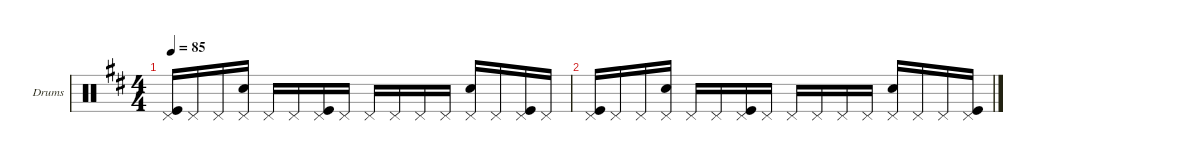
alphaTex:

\defaultSystemsLayout 4
\hideDynamics
\bracketExtendMode nobrackets
\firstSystemTrackNameOrientation horizontal
\otherSystemsTrackNameOrientation horizontal
\track ("Drumkit" "Drums") {instrument percussion}
\staff {score}
\articulation defaults
\ts (4 4)
\tempo 85
\clef neutral
\ks d
("Pedal Hi-Hat (hit)" "Kick (hit)").16{dy mf} "Pedal Hi-Hat (hit)".16 "Pedal Hi-Hat (hit)".16 ("Pedal Hi-Hat (hit)" "Snare (hit) 2").16 "Pedal Hi-Hat (hit)".16 "Pedal Hi-Hat (hit)".16 ("Pedal Hi-Hat (hit)" "Kick (hit)").16 "Pedal Hi-Hat (hit)".16 "Pedal Hi-Hat (hit)".16 "Pedal Hi-Hat (hit)".16 "Pedal Hi-Hat (hit)".16 "Pedal Hi-Hat (hit)".16 ("Pedal Hi-Hat (hit)" "Snare (hit) 2").16 "Pedal Hi-Hat (hit)".16 ("Pedal Hi-Hat (hit)" "Kick (hit)").16 "Pedal Hi-Hat (hit)".16 |
("Pedal Hi-Hat (hit)" "Kick (hit)").16 "Pedal Hi-Hat (hit)".16 "Pedal Hi-Hat (hit)".16 ("Pedal Hi-Hat (hit)" "Snare (hit) 2").16 "Pedal Hi-Hat (hit)".16 "Pedal Hi-Hat (hit)".16 ("Pedal Hi-Hat (hit)" "Kick (hit)").16 "Pedal Hi-Hat (hit)".16 "Pedal Hi-Hat (hit)".16 "Pedal Hi-Hat (hit)".16 "Pedal Hi-Hat (hit)".16 "Pedal Hi-Hat (hit)".16 ("Pedal Hi-Hat (hit)" "Snare (hit) 2").16 "Pedal Hi-Hat (hit)".16 "Pedal Hi-Hat (hit)".16 ("Pedal Hi-Hat (hit)" "Kick (hit)").16
